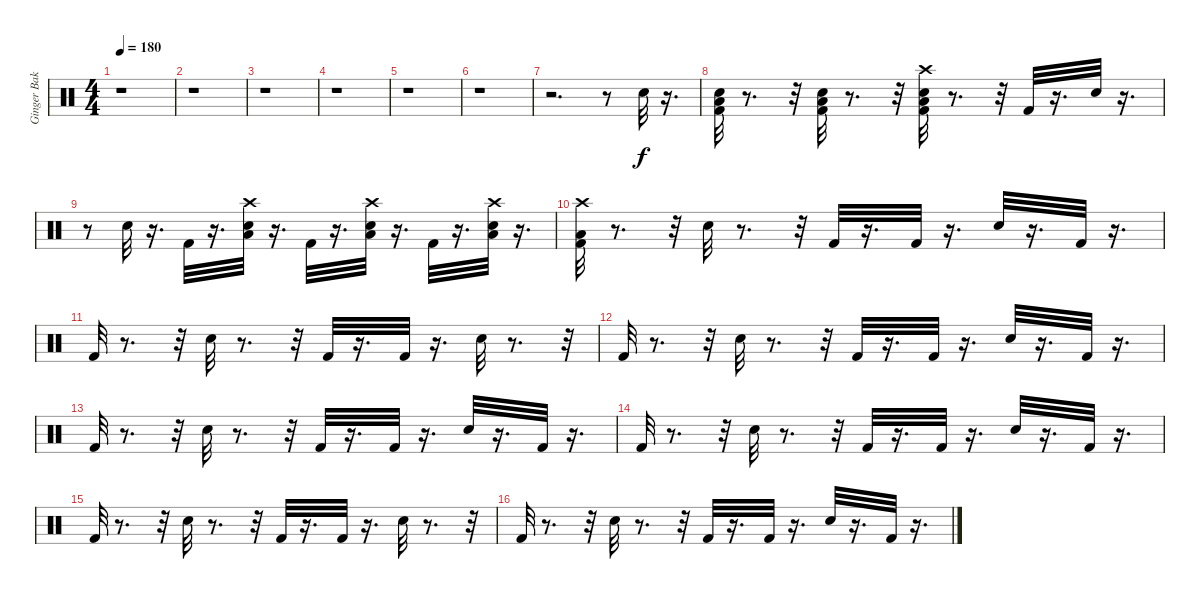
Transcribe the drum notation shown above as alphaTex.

\track ("Ginger Baker" "Ginger Bak") {instrument percussion}
\staff {score}
\articulation defaults
\ts (4 4)
\tempo 180
\clef neutral
\ks c
r.1{dy f} |
r.1 |
r.1 |
r.1 |
r.1 |
r.1 |
r.2{d} r.8 "Snare (hit) 2".32 r.16{d} |
("Kick (hit) 2" "Low Floor Tom (hit)" "Snare (hit) 2").32 r.8{d} r.32 ("Kick (hit) 2" "Low Floor Tom (hit)" "Snare (hit) 2").32 r.8{d} r.32 ("Low Floor Tom (hit)" "Crash high (hit)" "Kick (hit) 2" "Snare (hit) 2").32 r.8{d} r.32 "Kick (hit) 2".32 r.16{d} "Snare (hit) 2".32 r.16{d} |
r.8 "Snare (hit) 2".32 r.16{d} "Kick (hit) 2".32 r.16{d} ("Low Floor Tom (hit)" "Crash high (hit)" "Snare (hit) 2").32 r.16{d} "Kick (hit) 2".32 r.16{d} ("Low Floor Tom (hit)" "Crash high (hit)" "Snare (hit) 2").32 r.16{d} "Kick (hit) 2".32 r.16{d} ("Low Floor Tom (hit)" "Crash high (hit)" "Snare (hit) 2").32 r.16{d} |
("Crash high (hit)" "Low Floor Tom (hit)" "Kick (hit) 2").32 r.8{d} r.32 "Snare (hit) 2".32 r.8{d} r.32 "Kick (hit) 2".32 r.16{d} "Kick (hit) 2".32 r.16{d} "Snare (hit) 2".32 r.16{d} "Kick (hit) 2".32 r.16{d} |
"Kick (hit) 2".32 r.8{d} r.32 "Snare (hit) 2".32 r.8{d} r.32 "Kick (hit) 2".32 r.16{d} "Kick (hit) 2".32 r.16{d} "Snare (hit) 2".32 r.8{d} r.32 |
"Kick (hit) 2".32 r.8{d} r.32 "Snare (hit) 2".32 r.8{d} r.32 "Kick (hit) 2".32 r.16{d} "Kick (hit) 2".32 r.16{d} "Snare (hit) 2".32 r.16{d} "Kick (hit) 2".32 r.16{d} |
"Kick (hit) 2".32 r.8{d} r.32 "Snare (hit) 2".32 r.8{d} r.32 "Kick (hit) 2".32 r.16{d} "Kick (hit) 2".32 r.16{d} "Snare (hit) 2".32 r.16{d} "Kick (hit) 2".32 r.16{d} |
"Kick (hit) 2".32 r.8{d} r.32 "Snare (hit) 2".32 r.8{d} r.32 "Kick (hit) 2".32 r.16{d} "Kick (hit) 2".32 r.16{d} "Snare (hit) 2".32 r.16{d} "Kick (hit) 2".32 r.16{d} |
"Kick (hit) 2".32 r.8{d} r.32 "Snare (hit) 2".32 r.8{d} r.32 "Kick (hit) 2".32 r.16{d} "Kick (hit) 2".32 r.16{d} "Snare (hit) 2".32 r.8{d} r.32 |
"Kick (hit) 2".32 r.8{d} r.32 "Snare (hit) 2".32 r.8{d} r.32 "Kick (hit) 2".32 r.16{d} "Kick (hit) 2".32 r.16{d} "Snare (hit) 2".32 r.16{d} "Kick (hit) 2".32 r.16{d}
